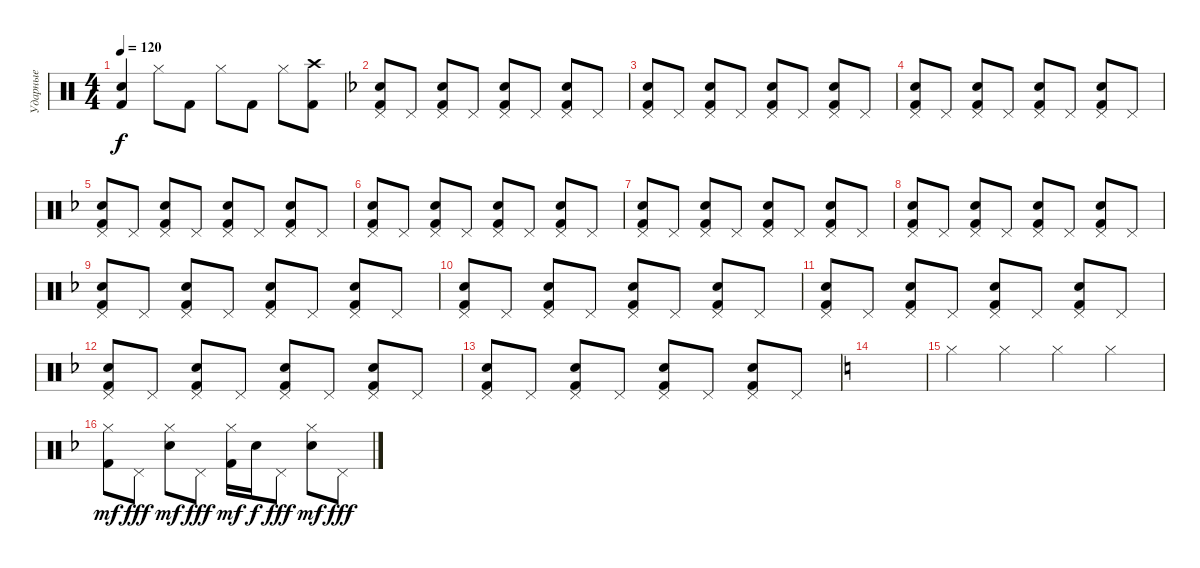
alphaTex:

\track ("Ударные" "Ударные") {instrument percussion}
\staff {score}
\articulation defaults
\ts (4 4)
\tempo 120
\clef neutral
\ks c
("Snare (hit) 2" "Kick (hit) 2").4{dy f} "Hi-Hat (closed)".8 "Kick (hit) 2".8 "Hi-Hat (closed)".8 "Kick (hit) 2".8 "Hi-Hat (closed)".8 ("Kick (hit) 2" "Crash high (hit)").8 |
\ks dminor
("Pedal Hi-Hat (hit)" "Snare (hit) 2" "Kick (hit) 2").8 "Pedal Hi-Hat (hit)".8 ("Pedal Hi-Hat (hit)" "Snare (hit) 2" "Kick (hit) 2").8 "Pedal Hi-Hat (hit)".8 ("Pedal Hi-Hat (hit)" "Snare (hit) 2" "Kick (hit) 2").8 "Pedal Hi-Hat (hit)".8 ("Pedal Hi-Hat (hit)" "Snare (hit) 2" "Kick (hit) 2").8 "Pedal Hi-Hat (hit)".8 |
("Pedal Hi-Hat (hit)" "Snare (hit) 2" "Kick (hit) 2").8 "Pedal Hi-Hat (hit)".8 ("Pedal Hi-Hat (hit)" "Snare (hit) 2" "Kick (hit) 2").8 "Pedal Hi-Hat (hit)".8 ("Pedal Hi-Hat (hit)" "Snare (hit) 2" "Kick (hit) 2").8 "Pedal Hi-Hat (hit)".8 ("Pedal Hi-Hat (hit)" "Snare (hit) 2" "Kick (hit) 2").8 "Pedal Hi-Hat (hit)".8 |
("Pedal Hi-Hat (hit)" "Snare (hit) 2" "Kick (hit) 2").8 "Pedal Hi-Hat (hit)".8 ("Pedal Hi-Hat (hit)" "Snare (hit) 2" "Kick (hit) 2").8 "Pedal Hi-Hat (hit)".8 ("Pedal Hi-Hat (hit)" "Snare (hit) 2" "Kick (hit) 2").8 "Pedal Hi-Hat (hit)".8 ("Pedal Hi-Hat (hit)" "Snare (hit) 2" "Kick (hit) 2").8 "Pedal Hi-Hat (hit)".8 |
("Pedal Hi-Hat (hit)" "Snare (hit) 2" "Kick (hit) 2").8 "Pedal Hi-Hat (hit)".8 ("Pedal Hi-Hat (hit)" "Snare (hit) 2" "Kick (hit) 2").8 "Pedal Hi-Hat (hit)".8 ("Pedal Hi-Hat (hit)" "Snare (hit) 2" "Kick (hit) 2").8 "Pedal Hi-Hat (hit)".8 ("Pedal Hi-Hat (hit)" "Snare (hit) 2" "Kick (hit) 2").8 "Pedal Hi-Hat (hit)".8 |
("Pedal Hi-Hat (hit)" "Snare (hit) 2" "Kick (hit) 2").8 "Pedal Hi-Hat (hit)".8 ("Pedal Hi-Hat (hit)" "Snare (hit) 2" "Kick (hit) 2").8 "Pedal Hi-Hat (hit)".8 ("Pedal Hi-Hat (hit)" "Snare (hit) 2" "Kick (hit) 2").8 "Pedal Hi-Hat (hit)".8 ("Pedal Hi-Hat (hit)" "Snare (hit) 2" "Kick (hit) 2").8 "Pedal Hi-Hat (hit)".8 |
("Pedal Hi-Hat (hit)" "Snare (hit) 2" "Kick (hit) 2").8 "Pedal Hi-Hat (hit)".8 ("Pedal Hi-Hat (hit)" "Snare (hit) 2" "Kick (hit) 2").8 "Pedal Hi-Hat (hit)".8 ("Pedal Hi-Hat (hit)" "Snare (hit) 2" "Kick (hit) 2").8 "Pedal Hi-Hat (hit)".8 ("Pedal Hi-Hat (hit)" "Snare (hit) 2" "Kick (hit) 2").8 "Pedal Hi-Hat (hit)".8 |
("Pedal Hi-Hat (hit)" "Snare (hit) 2" "Kick (hit) 2").8 "Pedal Hi-Hat (hit)".8 ("Pedal Hi-Hat (hit)" "Snare (hit) 2" "Kick (hit) 2").8 "Pedal Hi-Hat (hit)".8 ("Pedal Hi-Hat (hit)" "Snare (hit) 2" "Kick (hit) 2").8 "Pedal Hi-Hat (hit)".8 ("Pedal Hi-Hat (hit)" "Snare (hit) 2" "Kick (hit) 2").8 "Pedal Hi-Hat (hit)".8 |
("Pedal Hi-Hat (hit)" "Snare (hit) 2" "Kick (hit) 2").8 "Pedal Hi-Hat (hit)".8 ("Pedal Hi-Hat (hit)" "Snare (hit) 2" "Kick (hit) 2").8 "Pedal Hi-Hat (hit)".8 ("Pedal Hi-Hat (hit)" "Snare (hit) 2" "Kick (hit) 2").8 "Pedal Hi-Hat (hit)".8 ("Pedal Hi-Hat (hit)" "Snare (hit) 2" "Kick (hit) 2").8 "Pedal Hi-Hat (hit)".8 |
("Pedal Hi-Hat (hit)" "Snare (hit) 2" "Kick (hit) 2").8 "Pedal Hi-Hat (hit)".8 ("Pedal Hi-Hat (hit)" "Snare (hit) 2" "Kick (hit) 2").8 "Pedal Hi-Hat (hit)".8 ("Pedal Hi-Hat (hit)" "Snare (hit) 2" "Kick (hit) 2").8 "Pedal Hi-Hat (hit)".8 ("Pedal Hi-Hat (hit)" "Snare (hit) 2" "Kick (hit) 2").8 "Pedal Hi-Hat (hit)".8 |
("Pedal Hi-Hat (hit)" "Snare (hit) 2" "Kick (hit) 2").8 "Pedal Hi-Hat (hit)".8 ("Pedal Hi-Hat (hit)" "Snare (hit) 2" "Kick (hit) 2").8 "Pedal Hi-Hat (hit)".8 ("Pedal Hi-Hat (hit)" "Snare (hit) 2" "Kick (hit) 2").8 "Pedal Hi-Hat (hit)".8 ("Pedal Hi-Hat (hit)" "Snare (hit) 2" "Kick (hit) 2").8 "Pedal Hi-Hat (hit)".8 |
("Pedal Hi-Hat (hit)" "Snare (hit) 2" "Kick (hit) 2").8 "Pedal Hi-Hat (hit)".8 ("Pedal Hi-Hat (hit)" "Snare (hit) 2" "Kick (hit) 2").8 "Pedal Hi-Hat (hit)".8 ("Pedal Hi-Hat (hit)" "Snare (hit) 2" "Kick (hit) 2").8 "Pedal Hi-Hat (hit)".8 ("Pedal Hi-Hat (hit)" "Snare (hit) 2" "Kick (hit) 2").8 "Pedal Hi-Hat (hit)".8 |
("Pedal Hi-Hat (hit)" "Snare (hit) 2" "Kick (hit) 2").8 "Pedal Hi-Hat (hit)".8 ("Pedal Hi-Hat (hit)" "Snare (hit) 2" "Kick (hit) 2").8 "Pedal Hi-Hat (hit)".8 ("Pedal Hi-Hat (hit)" "Snare (hit) 2" "Kick (hit) 2").8 "Pedal Hi-Hat (hit)".8 ("Pedal Hi-Hat (hit)" "Snare (hit) 2" "Kick (hit) 2").8 "Pedal Hi-Hat (hit)".8 |
\ks c
|
"Hi-Hat (closed)".4 "Hi-Hat (closed)".4 "Hi-Hat (closed)".4 "Hi-Hat (closed)".4 |
\ks dminor
("Kick (hit) 2" "Hi-Hat (closed)").8{dy mf} "Pedal Hi-Hat (hit)".8{dy fff} ("Hi-Hat (closed)" "Electric Snare (hit)").8{dy mf} "Pedal Hi-Hat (hit)".8{dy fff} ("Kick (hit) 2" "Hi-Hat (closed)").16{dy mf} "Electric Snare (hit)".16{dy f} "Pedal Hi-Hat (hit)".8{dy fff} ("Hi-Hat (closed)" "Electric Snare (hit)").8{dy mf} "Pedal Hi-Hat (hit)".8{dy fff}
